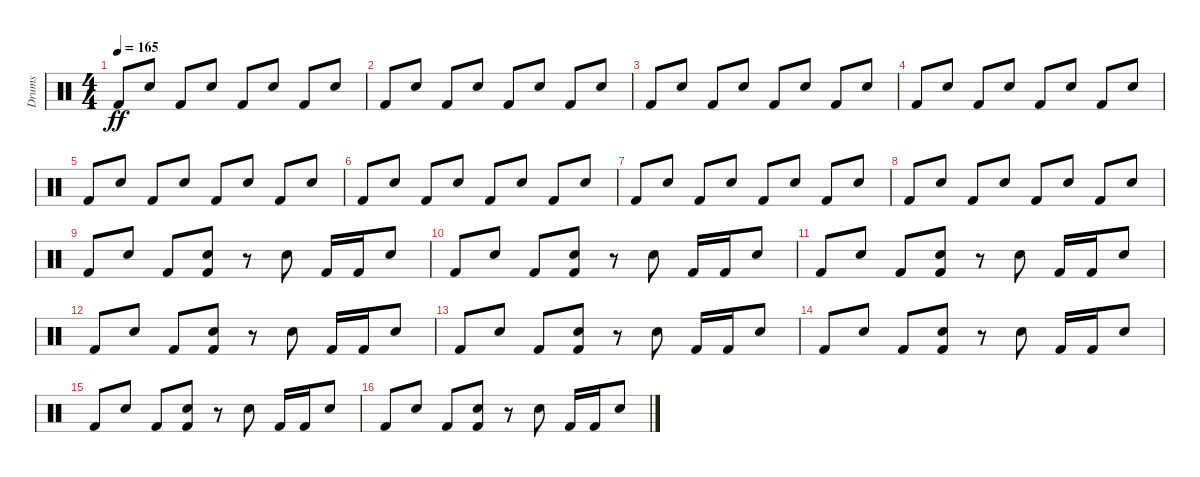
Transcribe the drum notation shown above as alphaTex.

\track ("Drums" "Drums") {instrument percussion}
\staff {score}
\articulation defaults
\ts (4 4)
\tempo 165
\clef neutral
\ks c "Kick (hit) 2".8{dy ff} "Snare (hit) 2".8 "Kick (hit) 2".8 "Snare (hit) 2".8 "Kick (hit) 2".8 "Snare (hit) 2".8 "Kick (hit) 2".8 "Snare (hit) 2".8
|
"Kick (hit) 2".8 "Snare (hit) 2".8 "Kick (hit) 2".8 "Snare (hit) 2".8 "Kick (hit) 2".8 "Snare (hit) 2".8 "Kick (hit) 2".8 "Snare (hit) 2".8 |
"Kick (hit) 2".8 "Snare (hit) 2".8 "Kick (hit) 2".8 "Snare (hit) 2".8 "Kick (hit) 2".8 "Snare (hit) 2".8 "Kick (hit) 2".8 "Snare (hit) 2".8 |
"Kick (hit) 2".8 "Snare (hit) 2".8 "Kick (hit) 2".8 "Snare (hit) 2".8 "Kick (hit) 2".8 "Snare (hit) 2".8 "Kick (hit) 2".8 "Snare (hit) 2".8 |
"Kick (hit) 2".8 "Snare (hit) 2".8 "Kick (hit) 2".8 "Snare (hit) 2".8 "Kick (hit) 2".8 "Snare (hit) 2".8 "Kick (hit) 2".8 "Snare (hit) 2".8 |
"Kick (hit) 2".8 "Snare (hit) 2".8 "Kick (hit) 2".8 "Snare (hit) 2".8 "Kick (hit) 2".8 "Snare (hit) 2".8 "Kick (hit) 2".8 "Snare (hit) 2".8 |
"Kick (hit) 2".8 "Snare (hit) 2".8 "Kick (hit) 2".8 "Snare (hit) 2".8 "Kick (hit) 2".8 "Snare (hit) 2".8 "Kick (hit) 2".8 "Snare (hit) 2".8 |
"Kick (hit) 2".8 "Snare (hit) 2".8 "Kick (hit) 2".8 "Snare (hit) 2".8 "Kick (hit) 2".8 "Snare (hit) 2".8 "Kick (hit) 2".8 "Snare (hit) 2".8 |
"Kick (hit) 2".8 "Snare (hit) 2".8 "Kick (hit) 2".8 ("Kick (hit) 2" "Snare (hit) 2").8 r.8 "Snare (hit) 2".8 "Kick (hit) 2".16 "Kick (hit) 2".16 "Snare (hit) 2".8 |
"Kick (hit) 2".8 "Snare (hit) 2".8 "Kick (hit) 2".8 ("Snare (hit) 2" "Kick (hit) 2").8 r.8 "Snare (hit) 2".8 "Kick (hit) 2".16 "Kick (hit) 2".16 "Snare (hit) 2".8 |
"Kick (hit) 2".8 "Snare (hit) 2".8 "Kick (hit) 2".8 ("Kick (hit) 2" "Snare (hit) 2").8 r.8 "Snare (hit) 2".8 "Kick (hit) 2".16 "Kick (hit) 2".16 "Snare (hit) 2".8 |
"Kick (hit) 2".8 "Snare (hit) 2".8 "Kick (hit) 2".8 ("Snare (hit) 2" "Kick (hit) 2").8 r.8 "Snare (hit) 2".8 "Kick (hit) 2".16 "Kick (hit) 2".16 "Snare (hit) 2".8 |
"Kick (hit) 2".8 "Snare (hit) 2".8 "Kick (hit) 2".8 ("Kick (hit) 2" "Snare (hit) 2").8 r.8 "Snare (hit) 2".8 "Kick (hit) 2".16 "Kick (hit) 2".16 "Snare (hit) 2".8 |
"Kick (hit) 2".8 "Snare (hit) 2".8 "Kick (hit) 2".8 ("Snare (hit) 2" "Kick (hit) 2").8 r.8 "Snare (hit) 2".8 "Kick (hit) 2".16 "Kick (hit) 2".16 "Snare (hit) 2".8 |
"Kick (hit) 2".8 "Snare (hit) 2".8 "Kick (hit) 2".8 ("Kick (hit) 2" "Snare (hit) 2").8 r.8 "Snare (hit) 2".8 "Kick (hit) 2".16 "Kick (hit) 2".16 "Snare (hit) 2".8 |
"Kick (hit) 2".8 "Snare (hit) 2".8 "Kick (hit) 2".8 ("Snare (hit) 2" "Kick (hit) 2").8 r.8 "Snare (hit) 2".8 "Kick (hit) 2".16 "Kick (hit) 2".16 "Snare (hit) 2".8
